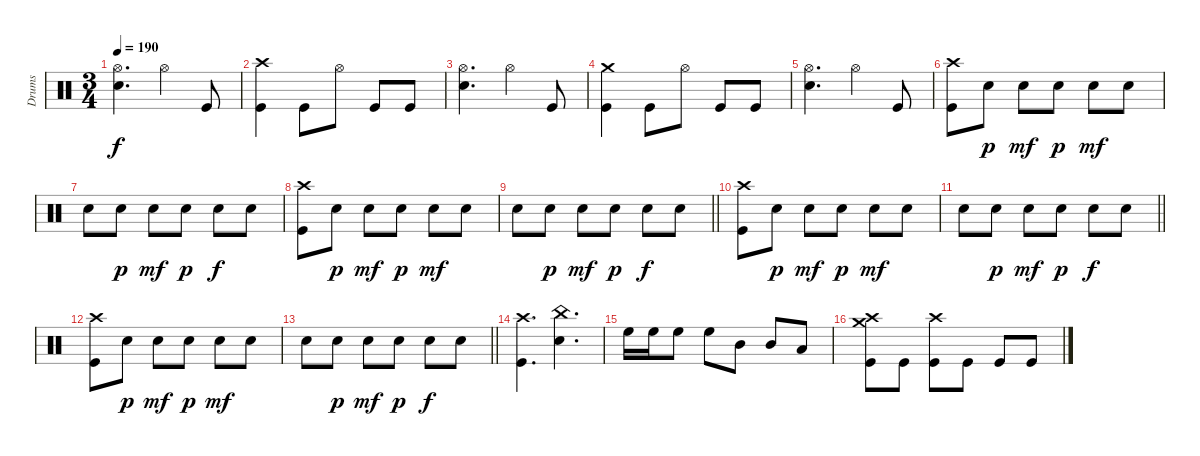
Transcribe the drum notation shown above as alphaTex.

\track ("Drums" "Drums") {instrument percussion}
\staff {score}
\articulation defaults
\ts (3 4)
\tempo 190
\clef neutral
\ks c
("Hi-Hat (open)" "Snare (hit) 2").4{d dy f} "Hi-Hat (open)".4 "Kick (hit)".8 |
("Crash high (hit)" "Kick (hit)").4 "Kick (hit)".8 "Hi-Hat (open)".8 "Kick (hit)".8 "Kick (hit)".8 |
("Hi-Hat (open)" "Snare (hit) 2").4{d} "Hi-Hat (open)".4 "Kick (hit)".8 |
("Crash medium (hit)" "Kick (hit)").4 "Kick (hit)".8 "Hi-Hat (open)".8 "Kick (hit)".8 "Kick (hit)".8 |
("Hi-Hat (open)" "Snare (hit) 2").4{d} "Hi-Hat (open)".4 "Kick (hit)".8 |
("Crash high (hit)" "Kick (hit)").8 "Snare (hit) 2".8{dy p} "Snare (hit) 2".8{dy mf} "Snare (hit) 2".8{dy p} "Snare (hit) 2".8{dy mf} "Snare (hit) 2".8 |
"Snare (hit) 2".8 "Snare (hit) 2".8{dy p} "Snare (hit) 2".8{dy mf} "Snare (hit) 2".8{dy p} "Snare (hit) 2".8{dy f} "Snare (hit) 2".8 |
("Crash high (hit)" "Kick (hit)").8 "Snare (hit) 2".8{dy p} "Snare (hit) 2".8{dy mf} "Snare (hit) 2".8{dy p} "Snare (hit) 2".8{dy mf} "Snare (hit) 2".8 |
\barLineRight lightlight "Snare (hit) 2".8 "Snare (hit) 2".8{dy p} "Snare (hit) 2".8{dy mf} "Snare (hit) 2".8{dy p} "Snare (hit) 2".8{dy f} "Snare (hit) 2".8
|
("Crash high (hit)" "Kick (hit)").8 "Snare (hit) 2".8{dy p} "Snare (hit) 2".8{dy mf} "Snare (hit) 2".8{dy p} "Snare (hit) 2".8{dy mf} "Snare (hit) 2".8 |
\barLineRight lightlight "Snare (hit) 2".8 "Snare (hit) 2".8{dy p} "Snare (hit) 2".8{dy mf} "Snare (hit) 2".8{dy p} "Snare (hit) 2".8{dy f} "Snare (hit) 2".8
|
("Crash high (hit)" "Kick (hit)").8 "Snare (hit) 2".8{dy p} "Snare (hit) 2".8{dy mf} "Snare (hit) 2".8{dy p} "Snare (hit) 2".8{dy mf} "Snare (hit) 2".8 |
\barLineRight lightlight "Snare (hit) 2".8 "Snare (hit) 2".8{dy p} "Snare (hit) 2".8{dy mf} "Snare (hit) 2".8{dy p} "Snare (hit) 2".8{dy f} "Snare (hit) 2".8
|
("Crash high (hit)" "Kick (hit)").4{d} ("Snare (hit) 2" "China (hit)").4{d} |
"High Floor Tom (hit)".16 "High Floor Tom (hit)".16 "High Floor Tom (hit)".8 "High Floor Tom (hit)".8 "Mid Tom (hit)".8 "Mid Tom (hit)".8 "Low Floor Tom (hit)".8 |
("Crash medium (hit)" "Crash high (hit)" "Kick (hit)").8 "Kick (hit)".8 ("Crash high (hit)" "Kick (hit)").8 "Kick (hit)".8 "Kick (hit)".8 "Kick (hit)".8
